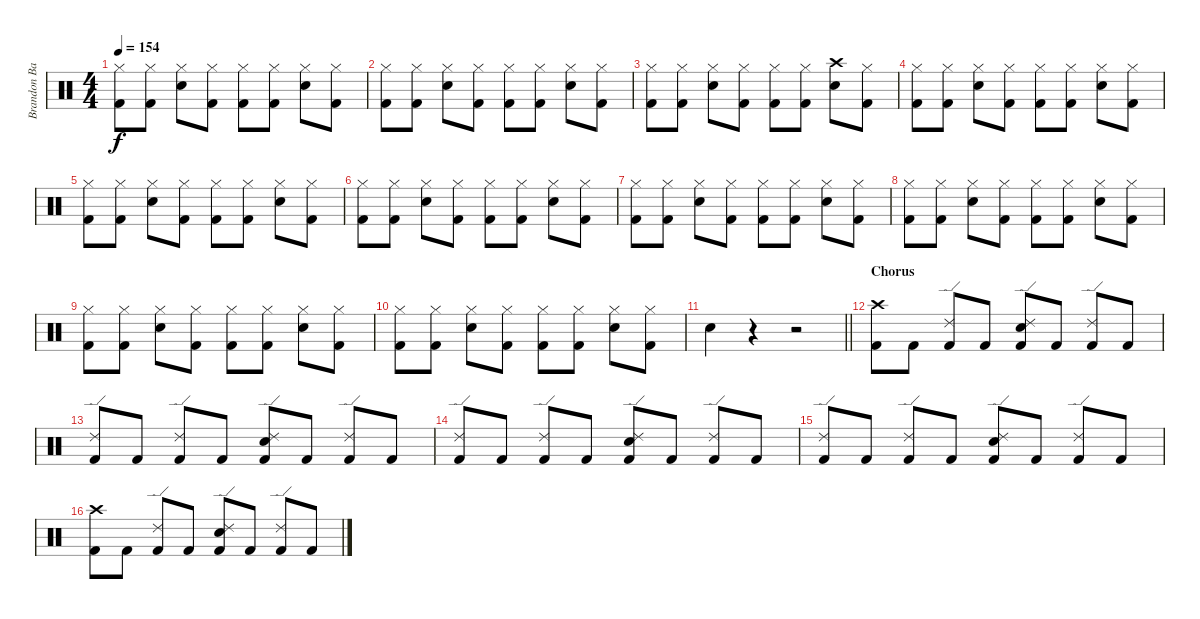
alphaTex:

\track ("Brandon Barnes - Drums" "Brandon Ba") {instrument percussion}
\staff {score}
\articulation defaults
\ts (4 4)
\tempo 154
\clef neutral
\ks c
("Kick (hit) 2" "Hi-Hat (closed)").8{dy f} ("Kick (hit) 2" "Hi-Hat (closed)").8 ("Snare (hit) 2" "Hi-Hat (closed)").8 ("Kick (hit) 2" "Hi-Hat (closed)").8 ("Kick (hit) 2" "Hi-Hat (closed)").8 ("Kick (hit) 2" "Hi-Hat (closed)").8 ("Snare (hit) 2" "Hi-Hat (closed)").8 ("Kick (hit) 2" "Hi-Hat (closed)").8 |
("Kick (hit) 2" "Hi-Hat (closed)").8 ("Kick (hit) 2" "Hi-Hat (closed)").8 ("Snare (hit) 2" "Hi-Hat (closed)").8 ("Kick (hit) 2" "Hi-Hat (closed)").8 ("Kick (hit) 2" "Hi-Hat (closed)").8 ("Kick (hit) 2" "Hi-Hat (closed)").8 ("Snare (hit) 2" "Hi-Hat (closed)").8 ("Kick (hit) 2" "Hi-Hat (closed)").8 |
("Kick (hit) 2" "Hi-Hat (closed)").8 ("Kick (hit) 2" "Hi-Hat (closed)").8 ("Snare (hit) 2" "Hi-Hat (closed)").8 ("Kick (hit) 2" "Hi-Hat (closed)").8 ("Kick (hit) 2" "Hi-Hat (closed)").8 ("Kick (hit) 2" "Hi-Hat (closed)").8 ("Snare (hit) 2" "Crash high (hit)").8 ("Kick (hit) 2" "Hi-Hat (closed)").8 |
("Kick (hit) 2" "Hi-Hat (closed)").8 ("Kick (hit) 2" "Hi-Hat (closed)").8 ("Snare (hit) 2" "Hi-Hat (closed)").8 ("Kick (hit) 2" "Hi-Hat (closed)").8 ("Kick (hit) 2" "Hi-Hat (closed)").8 ("Kick (hit) 2" "Hi-Hat (closed)").8 ("Snare (hit) 2" "Hi-Hat (closed)").8 ("Kick (hit) 2" "Hi-Hat (closed)").8 |
("Kick (hit) 2" "Hi-Hat (closed)").8 ("Kick (hit) 2" "Hi-Hat (closed)").8 ("Snare (hit) 2" "Hi-Hat (closed)").8 ("Kick (hit) 2" "Hi-Hat (closed)").8 ("Kick (hit) 2" "Hi-Hat (closed)").8 ("Kick (hit) 2" "Hi-Hat (closed)").8 ("Snare (hit) 2" "Hi-Hat (closed)").8 ("Kick (hit) 2" "Hi-Hat (closed)").8 |
("Kick (hit) 2" "Hi-Hat (closed)").8 ("Kick (hit) 2" "Hi-Hat (closed)").8 ("Snare (hit) 2" "Hi-Hat (closed)").8 ("Kick (hit) 2" "Hi-Hat (closed)").8 ("Kick (hit) 2" "Hi-Hat (closed)").8 ("Kick (hit) 2" "Hi-Hat (closed)").8 ("Snare (hit) 2" "Hi-Hat (closed)").8 ("Kick (hit) 2" "Hi-Hat (closed)").8 |
("Kick (hit) 2" "Hi-Hat (closed)").8 ("Kick (hit) 2" "Hi-Hat (closed)").8 ("Snare (hit) 2" "Hi-Hat (closed)").8 ("Kick (hit) 2" "Hi-Hat (closed)").8 ("Kick (hit) 2" "Hi-Hat (closed)").8 ("Kick (hit) 2" "Hi-Hat (closed)").8 ("Snare (hit) 2" "Hi-Hat (closed)").8 ("Kick (hit) 2" "Hi-Hat (closed)").8 |
("Kick (hit) 2" "Hi-Hat (closed)").8 ("Kick (hit) 2" "Hi-Hat (closed)").8 ("Snare (hit) 2" "Hi-Hat (closed)").8 ("Kick (hit) 2" "Hi-Hat (closed)").8 ("Kick (hit) 2" "Hi-Hat (closed)").8 ("Kick (hit) 2" "Hi-Hat (closed)").8 ("Snare (hit) 2" "Hi-Hat (closed)").8 ("Kick (hit) 2" "Hi-Hat (closed)").8 |
("Kick (hit) 2" "Hi-Hat (closed)").8 ("Kick (hit) 2" "Hi-Hat (closed)").8 ("Snare (hit) 2" "Hi-Hat (closed)").8 ("Kick (hit) 2" "Hi-Hat (closed)").8 ("Kick (hit) 2" "Hi-Hat (closed)").8 ("Kick (hit) 2" "Hi-Hat (closed)").8 ("Snare (hit) 2" "Hi-Hat (closed)").8 ("Kick (hit) 2" "Hi-Hat (closed)").8 |
("Kick (hit) 2" "Hi-Hat (closed)").8 ("Kick (hit) 2" "Hi-Hat (closed)").8 ("Snare (hit) 2" "Hi-Hat (closed)").8 ("Kick (hit) 2" "Hi-Hat (closed)").8 ("Kick (hit) 2" "Hi-Hat (closed)").8 ("Kick (hit) 2" "Hi-Hat (closed)").8 ("Snare (hit) 2" "Hi-Hat (closed)").8 ("Kick (hit) 2" "Hi-Hat (closed)").8 |
\barLineRight lightlight "Snare (hit) 2".4
r.4 r.2 |
\section ("" "Chorus")
("Kick (hit) 2" "Crash high (hit)").8 "Kick (hit) 2".8 ("Kick (hit) 2" "Ride (edge) 2").8 "Kick (hit) 2".8 ("Snare (hit) 2" "Ride (edge) 2" "Kick (hit) 2").8 "Kick (hit) 2".8 ("Kick (hit) 2" "Ride (edge) 2").8 "Kick (hit) 2".8 |
("Kick (hit) 2" "Ride (edge) 2").8 "Kick (hit) 2".8 ("Kick (hit) 2" "Ride (edge) 2").8 "Kick (hit) 2".8 ("Snare (hit) 2" "Ride (edge) 2" "Kick (hit) 2").8 "Kick (hit) 2".8 ("Kick (hit) 2" "Ride (edge) 2").8 "Kick (hit) 2".8 |
("Kick (hit) 2" "Ride (edge) 2").8 "Kick (hit) 2".8 ("Kick (hit) 2" "Ride (edge) 2").8 "Kick (hit) 2".8 ("Snare (hit) 2" "Ride (edge) 2" "Kick (hit) 2").8 "Kick (hit) 2".8 ("Kick (hit) 2" "Ride (edge) 2").8 "Kick (hit) 2".8 |
("Kick (hit) 2" "Ride (edge) 2").8 "Kick (hit) 2".8 ("Kick (hit) 2" "Ride (edge) 2").8 "Kick (hit) 2".8 ("Snare (hit) 2" "Ride (edge) 2" "Kick (hit) 2").8 "Kick (hit) 2".8 ("Kick (hit) 2" "Ride (edge) 2").8 "Kick (hit) 2".8 |
("Kick (hit) 2" "Crash high (hit)").8 "Kick (hit) 2".8 ("Kick (hit) 2" "Ride (edge) 2").8 "Kick (hit) 2".8 ("Snare (hit) 2" "Ride (edge) 2" "Kick (hit) 2").8 "Kick (hit) 2".8 ("Kick (hit) 2" "Ride (edge) 2").8 "Kick (hit) 2".8
